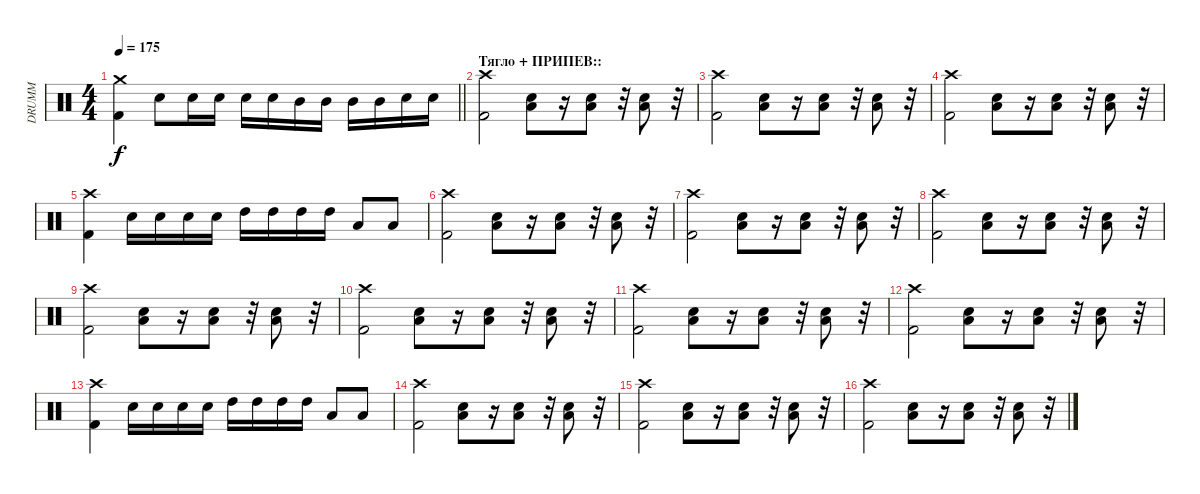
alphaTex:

\track ("DRUMM" "DRUMM") {instrument percussion}
\staff {score}
\articulation defaults
\ts (4 4)
\tempo 175
\clef neutral
\barLineRight lightlight
\ks c
("Crash medium (hit)" "Kick (hit) 2").4{dy f} "Electric Snare (hit)".8 "Electric Snare (hit)".16 "Electric Snare (hit)".16 "Electric Snare (hit)".16 "Electric Snare (hit)".16 "Mid Tom (hit)".16 "Mid Tom (hit)".16 "Mid Tom (hit)".16 "Mid Tom (hit)".16 "Electric Snare (hit)".16 "Electric Snare (hit)".16 |
\section ("" "Тягло + ПРИПЕВ::")
("Crash high (hit)" "Kick (hit) 2").2 ("Electric Snare (hit)" "Low Tom (hit)").8 r.16 ("Electric Snare (hit)" "Low Tom (hit)").8 r.32 ("Electric Snare (hit)" "Low Tom (hit)").8 r.32 |
("Crash high (hit)" "Kick (hit) 2").2 ("Electric Snare (hit)" "Low Tom (hit)").8 r.16 ("Electric Snare (hit)" "Low Tom (hit)").8 r.32 ("Electric Snare (hit)" "Low Tom (hit)").8 r.32 |
("Crash high (hit)" "Kick (hit) 2").2 ("Electric Snare (hit)" "Low Tom (hit)").8 r.16 ("Electric Snare (hit)" "Low Tom (hit)").8 r.32 ("Electric Snare (hit)" "Low Tom (hit)").8 r.32 |
("Crash high (hit)" "Kick (hit) 2").4 "Electric Snare (hit)".16 "Electric Snare (hit)".16 "Electric Snare (hit)".16 "Electric Snare (hit)".16 "High Tom (hit)".16 "High Tom (hit)".16 "High Tom (hit)".16 "High Tom (hit)".16 "Low Tom (hit)".8 "Low Tom (hit)".8 |
("Crash high (hit)" "Kick (hit) 2").2 ("Electric Snare (hit)" "Low Tom (hit)").8 r.16 ("Electric Snare (hit)" "Low Tom (hit)").8 r.32 ("Electric Snare (hit)" "Low Tom (hit)").8 r.32 |
("Crash high (hit)" "Kick (hit) 2").2 ("Electric Snare (hit)" "Low Tom (hit)").8 r.16 ("Electric Snare (hit)" "Low Tom (hit)").8 r.32 ("Electric Snare (hit)" "Low Tom (hit)").8 r.32 |
("Crash high (hit)" "Kick (hit) 2").2 ("Electric Snare (hit)" "Low Tom (hit)").8 r.16 ("Electric Snare (hit)" "Low Tom (hit)").8 r.32 ("Electric Snare (hit)" "Low Tom (hit)").8 r.32 |
("Crash high (hit)" "Kick (hit) 2").2 ("Electric Snare (hit)" "Low Tom (hit)").8 r.16 ("Electric Snare (hit)" "Low Tom (hit)").8 r.32 ("Electric Snare (hit)" "Low Tom (hit)").8 r.32 |
("Crash high (hit)" "Kick (hit) 2").2 ("Electric Snare (hit)" "Low Tom (hit)").8 r.16 ("Electric Snare (hit)" "Low Tom (hit)").8 r.32 ("Electric Snare (hit)" "Low Tom (hit)").8 r.32 |
("Crash high (hit)" "Kick (hit) 2").2 ("Electric Snare (hit)" "Low Tom (hit)").8 r.16 ("Electric Snare (hit)" "Low Tom (hit)").8 r.32 ("Electric Snare (hit)" "Low Tom (hit)").8 r.32 |
("Crash high (hit)" "Kick (hit) 2").2 ("Electric Snare (hit)" "Low Tom (hit)").8 r.16 ("Electric Snare (hit)" "Low Tom (hit)").8 r.32 ("Electric Snare (hit)" "Low Tom (hit)").8 r.32 |
("Crash high (hit)" "Kick (hit) 2").4 "Electric Snare (hit)".16 "Electric Snare (hit)".16 "Electric Snare (hit)".16 "Electric Snare (hit)".16 "High Tom (hit)".16 "High Tom (hit)".16 "High Tom (hit)".16 "High Tom (hit)".16 "Low Tom (hit)".8 "Low Tom (hit)".8 |
("Crash high (hit)" "Kick (hit) 2").2 ("Electric Snare (hit)" "Low Tom (hit)").8 r.16 ("Electric Snare (hit)" "Low Tom (hit)").8 r.32 ("Electric Snare (hit)" "Low Tom (hit)").8 r.32 |
("Crash high (hit)" "Kick (hit) 2").2 ("Electric Snare (hit)" "Low Tom (hit)").8 r.16 ("Electric Snare (hit)" "Low Tom (hit)").8 r.32 ("Electric Snare (hit)" "Low Tom (hit)").8 r.32 |
("Crash high (hit)" "Kick (hit) 2").2 ("Electric Snare (hit)" "Low Tom (hit)").8 r.16 ("Electric Snare (hit)" "Low Tom (hit)").8 r.32 ("Electric Snare (hit)" "Low Tom (hit)").8 r.32
